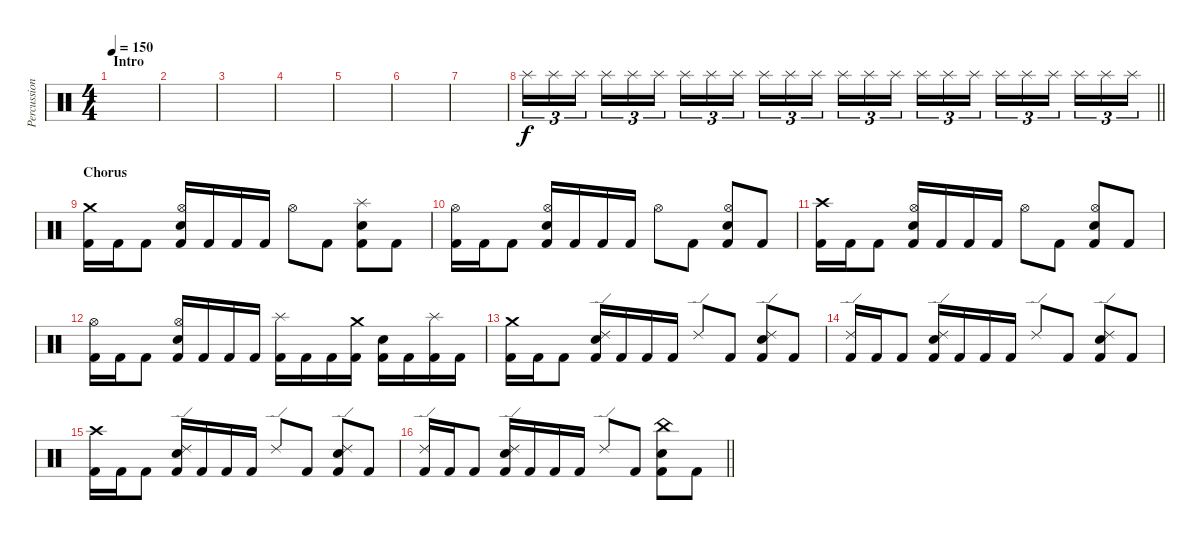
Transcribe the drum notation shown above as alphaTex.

\track ("Percussion" "Percussion") {instrument percussion}
\staff {score}
\articulation defaults
\ts (4 4)
\section ("" "Intro")
\tempo 150
\clef neutral
\ks c
|
|
|
|
|
|
|
\barLineRight lightlight "Splash (hit)".16{tu (3 2) volume 13} "Splash (hit)".16{tu (3 2)} "Splash (hit)".16{tu (3 2)} "Splash (hit)".16{tu (3 2)} "Splash (hit)".16{tu (3 2)} "Splash (hit)".16{tu (3 2)} "Splash (hit)".16{tu (3 2)} "Splash (hit)".16{tu (3 2)} "Splash (hit)".16{tu (3 2)} "Splash (hit)".16{tu (3 2)} "Splash (hit)".16{tu (3 2)} "Splash (hit)".16{tu (3 2)} "Splash (hit)".16{tu (3 2)} "Splash (hit)".16{tu (3 2)} "Splash (hit)".16{tu (3 2)} "Splash (hit)".16{tu (3 2)} "Splash (hit)".16{tu (3 2)} "Splash (hit)".16{tu (3 2)} "Splash (hit)".16{tu (3 2)} "Splash (hit)".16{tu (3 2)} "Splash (hit)".16{tu (3 2)} "Splash (hit)".16{tu (3 2)} "Splash (hit)".16{tu (3 2)} "Splash (hit)".16{tu (3 2)}
|
\section ("" "Chorus")
("Crash medium (hit)" "Kick (hit) 2").16 "Kick (hit) 2".16 "Kick (hit) 2".8 ("Hi-Hat (open)" "Electric Snare (hit)" "Kick (hit) 2").16 "Kick (hit) 2".16 "Kick (hit) 2".16 "Kick (hit) 2".16 "Hi-Hat (open)".8 "Kick (hit) 2".8 ("Splash (hit)" "Electric Snare (hit)" "Kick (hit) 2").8 "Kick (hit) 2".8 |
("Hi-Hat (open)" "Kick (hit) 2").16 "Kick (hit) 2".16 "Kick (hit) 2".8 ("Hi-Hat (open)" "Electric Snare (hit)" "Kick (hit) 2").16 "Kick (hit) 2".16 "Kick (hit) 2".16 "Kick (hit) 2".16 "Hi-Hat (open)".8 "Kick (hit) 2".8 ("Hi-Hat (open)" "Electric Snare (hit)" "Kick (hit) 2").8 "Kick (hit) 2".8 |
("Crash high (hit)" "Kick (hit) 2").16 "Kick (hit) 2".16 "Kick (hit) 2".8 ("Hi-Hat (open)" "Electric Snare (hit)" "Kick (hit) 2").16 "Kick (hit) 2".16 "Kick (hit) 2".16 "Kick (hit) 2".16 "Hi-Hat (open)".8 "Kick (hit) 2".8 ("Hi-Hat (open)" "Electric Snare (hit)" "Kick (hit) 2").8 "Kick (hit) 2".8 |
("Hi-Hat (open)" "Kick (hit) 2").16 "Kick (hit) 2".16 "Kick (hit) 2".8 ("Hi-Hat (open)" "Electric Snare (hit)" "Kick (hit) 2").16 "Kick (hit) 2".16 "Kick (hit) 2".16 "Kick (hit) 2".16 ("Splash (hit)" "Kick (hit) 2").16 "Kick (hit) 2".16 "Kick (hit) 2".16 ("Crash medium (hit)" "Kick (hit) 2").16 ("Electric Snare (hit)" "Kick (hit) 2").16 "Kick (hit) 2".16 ("Splash (hit)" "Kick (hit) 2").16 "Kick (hit) 2".16 |
("Crash medium (hit)" "Kick (hit) 2").16 "Kick (hit) 2".16 "Kick (hit) 2".8 ("Ride (edge) 2" "Electric Snare (hit)" "Kick (hit) 2").16 "Kick (hit) 2".16 "Kick (hit) 2".16 "Kick (hit) 2".16 "Ride (edge) 2".8 "Kick (hit) 2".8 ("Ride (edge) 2" "Electric Snare (hit)" "Kick (hit) 2").8 "Kick (hit) 2".8 |
("Ride (edge) 2" "Kick (hit) 2").16 "Kick (hit) 2".16 "Kick (hit) 2".8 ("Ride (edge) 2" "Electric Snare (hit)" "Kick (hit) 2").16 "Kick (hit) 2".16 "Kick (hit) 2".16 "Kick (hit) 2".16 "Ride (edge) 2".8 "Kick (hit) 2".8 ("Ride (edge) 2" "Electric Snare (hit)" "Kick (hit) 2").8 "Kick (hit) 2".8 |
("Crash high (hit)" "Kick (hit) 2").16 "Kick (hit) 2".16 "Kick (hit) 2".8 ("Ride (edge) 2" "Electric Snare (hit)" "Kick (hit) 2").16 "Kick (hit) 2".16 "Kick (hit) 2".16 "Kick (hit) 2".16 "Ride (edge) 2".8 "Kick (hit) 2".8 ("Ride (edge) 2" "Electric Snare (hit)" "Kick (hit) 2").8 "Kick (hit) 2".8 |
\barLineRight lightlight
("Ride (edge) 2" "Kick (hit) 2").16 "Kick (hit) 2".16 "Kick (hit) 2".8 ("Ride (edge) 2" "Electric Snare (hit)" "Kick (hit) 2").16 "Kick (hit) 2".16 "Kick (hit) 2".16 "Kick (hit) 2".16 "Ride (edge) 2".8 "Kick (hit) 2".8 ("China (hit)" "Electric Snare (hit)" "Kick (hit) 2").8 "Kick (hit) 2".8
